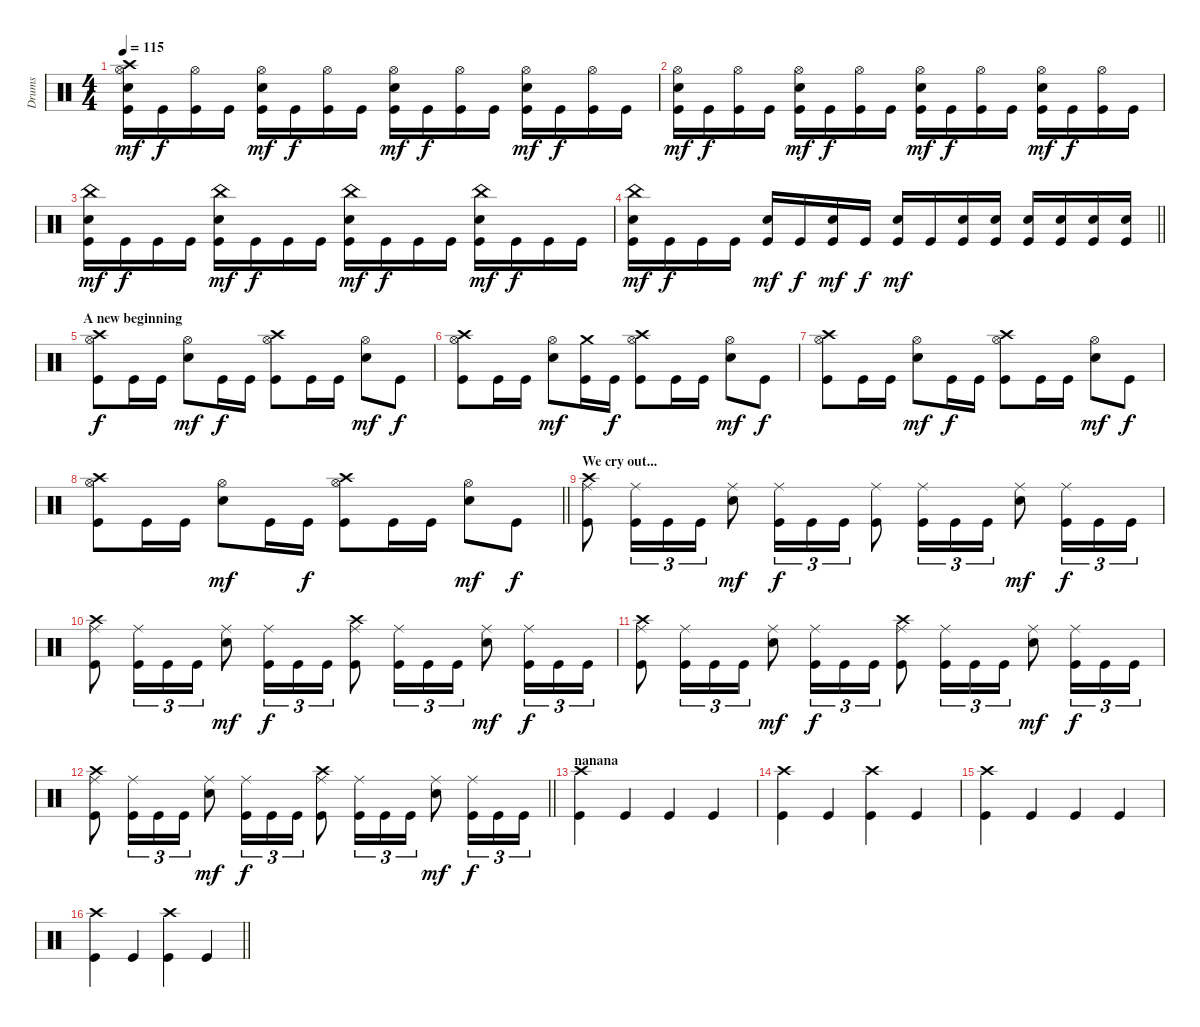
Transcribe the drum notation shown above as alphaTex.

\track ("Drums" "Drums") {instrument percussion}
\staff {score}
\articulation defaults
\ts (4 4)
\section ("" "")
\tempo 115
\clef neutral
\ks c
("Crash high (hit)" "Hi-Hat (open)" "Snare (hit) 2" "Kick (hit)").16{dy mf} "Kick (hit)".16{dy f} ("Hi-Hat (open)" "Kick (hit)").16 "Kick (hit)".16 ("Hi-Hat (open)" "Snare (hit) 2" "Kick (hit)").16{dy mf} "Kick (hit)".16{dy f} ("Hi-Hat (open)" "Kick (hit)").16 "Kick (hit)".16 ("Hi-Hat (open)" "Snare (hit) 2" "Kick (hit)").16{dy mf} "Kick (hit)".16{dy f} ("Hi-Hat (open)" "Kick (hit)").16 "Kick (hit)".16 ("Hi-Hat (open)" "Snare (hit) 2" "Kick (hit)").16{dy mf} "Kick (hit)".16{dy f} ("Hi-Hat (open)" "Kick (hit)").16 "Kick (hit)".16 |
("Hi-Hat (open)" "Snare (hit) 2" "Kick (hit)").16{dy mf} "Kick (hit)".16{dy f} ("Hi-Hat (open)" "Kick (hit)").16 "Kick (hit)".16 ("Hi-Hat (open)" "Snare (hit) 2" "Kick (hit)").16{dy mf} "Kick (hit)".16{dy f} ("Hi-Hat (open)" "Kick (hit)").16 "Kick (hit)".16 ("Hi-Hat (open)" "Snare (hit) 2" "Kick (hit)").16{dy mf} "Kick (hit)".16{dy f} ("Hi-Hat (open)" "Kick (hit)").16 "Kick (hit)".16 ("Hi-Hat (open)" "Snare (hit) 2" "Kick (hit)").16{dy mf} "Kick (hit)".16{dy f} ("Hi-Hat (open)" "Kick (hit)").16 "Kick (hit)".16 |
("China (hit)" "Snare (hit) 2" "Kick (hit)").16{dy mf} "Kick (hit)".16{dy f} "Kick (hit)".16 "Kick (hit)".16 ("China (hit)" "Snare (hit) 2" "Kick (hit)").16{dy mf} "Kick (hit)".16{dy f} "Kick (hit)".16 "Kick (hit)".16 ("China (hit)" "Snare (hit) 2" "Kick (hit)").16{dy mf} "Kick (hit)".16{dy f} "Kick (hit)".16 "Kick (hit)".16 ("China (hit)" "Snare (hit) 2" "Kick (hit)").16{dy mf} "Kick (hit)".16{dy f} "Kick (hit)".16 "Kick (hit)".16 |
\barLineRight lightlight
("China (hit)" "Snare (hit) 2" "Kick (hit)").16{dy mf} "Kick (hit)".16{dy f} "Kick (hit)".16 "Kick (hit)".16 ("Snare (hit) 2" "Kick (hit)").16{dy mf} "Kick (hit)".16{dy f} ("Snare (hit) 2" "Kick (hit)").16{dy mf} "Kick (hit)".16{dy f} ("Snare (hit) 2" "Kick (hit)").16{dy mf} "Kick (hit)".16 ("Snare (hit) 2" "Kick (hit)").16 ("Snare (hit) 2" "Kick (hit)").16 ("Snare (hit) 2" "Kick (hit)").16 ("Snare (hit) 2" "Kick (hit)").16 ("Snare (hit) 2" "Kick (hit)").16 ("Snare (hit) 2" "Kick (hit)").16 |
\section ("" "A new beginning")
("Crash high (hit)" "Hi-Hat (open)" "Kick (hit)").8{dy f} "Kick (hit)".16 "Kick (hit)".16 ("Hi-Hat (open)" "Snare (hit) 2").8{dy mf} "Kick (hit)".16{dy f} "Kick (hit)".16 ("Crash high (hit)" "Hi-Hat (open)" "Kick (hit)").8 "Kick (hit)".16 "Kick (hit)".16 ("Hi-Hat (open)" "Snare (hit) 2").8{dy mf} "Kick (hit)".8{dy f} |
("Crash high (hit)" "Hi-Hat (open)" "Kick (hit)").8 "Kick (hit)".16 "Kick (hit)".16 ("Hi-Hat (open)" "Snare (hit) 2").8{dy mf} ("Crash medium (hit)" "Kick (hit)").16 "Kick (hit)".16{dy f} ("Crash high (hit)" "Hi-Hat (open)" "Kick (hit)").8 "Kick (hit)".16 "Kick (hit)".16 ("Hi-Hat (open)" "Snare (hit) 2").8{dy mf} "Kick (hit)".8{dy f} |
("Crash high (hit)" "Hi-Hat (open)" "Kick (hit)").8 "Kick (hit)".16 "Kick (hit)".16 ("Hi-Hat (open)" "Snare (hit) 2").8{dy mf} "Kick (hit)".16{dy f} "Kick (hit)".16 ("Crash high (hit)" "Hi-Hat (open)" "Kick (hit)").8 "Kick (hit)".16 "Kick (hit)".16 ("Hi-Hat (open)" "Snare (hit) 2").8{dy mf} "Kick (hit)".8{dy f} |
\barLineRight lightlight
("Crash high (hit)" "Hi-Hat (open)" "Kick (hit)").8 "Kick (hit)".16 "Kick (hit)".16 ("Hi-Hat (open)" "Snare (hit) 2").8{dy mf} "Kick (hit)".16 "Kick (hit)".16{dy f} ("Crash high (hit)" "Hi-Hat (open)" "Kick (hit)").8 "Kick (hit)".16 "Kick (hit)".16 ("Hi-Hat (open)" "Snare (hit) 2").8{dy mf} "Kick (hit)".8{dy f} |
\section ("" "We cry out...")
("Crash high (hit)" "Ride (middle)" "Kick (hit)").8 ("Ride (middle)" "Kick (hit)").16{tu (3 2)} "Kick (hit)".16{tu (3 2)} "Kick (hit)".16{tu (3 2)} ("Ride (middle)" "Snare (hit) 2").8{dy mf} ("Ride (middle)" "Kick (hit)").16{tu (3 2) dy f} "Kick (hit)".16{tu (3 2)} "Kick (hit)".16{tu (3 2)} ("Ride (middle)" "Kick (hit)").8 ("Ride (middle)" "Kick (hit)").16{tu (3 2)} "Kick (hit)".16{tu (3 2)} "Kick (hit)".16{tu (3 2)} ("Ride (middle)" "Snare (hit) 2").8{dy mf} ("Ride (middle)" "Kick (hit)").16{tu (3 2) dy f} "Kick (hit)".16{tu (3 2)} "Kick (hit)".16{tu (3 2)} |
("Crash high (hit)" "Ride (middle)" "Kick (hit)").8 ("Ride (middle)" "Kick (hit)").16{tu (3 2)} "Kick (hit)".16{tu (3 2)} "Kick (hit)".16{tu (3 2)} ("Ride (middle)" "Snare (hit) 2").8{dy mf} ("Ride (middle)" "Kick (hit)").16{tu (3 2) dy f} "Kick (hit)".16{tu (3 2)} "Kick (hit)".16{tu (3 2)} ("Crash high (hit)" "Ride (middle)" "Kick (hit)").8 ("Ride (middle)" "Kick (hit)").16{tu (3 2)} "Kick (hit)".16{tu (3 2)} "Kick (hit)".16{tu (3 2)} ("Ride (middle)" "Snare (hit) 2").8{dy mf} ("Ride (middle)" "Kick (hit)").16{tu (3 2) dy f} "Kick (hit)".16{tu (3 2)} "Kick (hit)".16{tu (3 2)} |
("Crash high (hit)" "Ride (middle)" "Kick (hit)").8 ("Ride (middle)" "Kick (hit)").16{tu (3 2)} "Kick (hit)".16{tu (3 2)} "Kick (hit)".16{tu (3 2)} ("Ride (middle)" "Snare (hit) 2").8{dy mf} ("Ride (middle)" "Kick (hit)").16{tu (3 2) dy f} "Kick (hit)".16{tu (3 2)} "Kick (hit)".16{tu (3 2)} ("Crash high (hit)" "Ride (middle)" "Kick (hit)").8 ("Ride (middle)" "Kick (hit)").16{tu (3 2)} "Kick (hit)".16{tu (3 2)} "Kick (hit)".16{tu (3 2)} ("Ride (middle)" "Snare (hit) 2").8{dy mf} ("Ride (middle)" "Kick (hit)").16{tu (3 2) dy f} "Kick (hit)".16{tu (3 2)} "Kick (hit)".16{tu (3 2)} |
\barLineRight lightlight
("Crash high (hit)" "Ride (middle)" "Kick (hit)").8 ("Ride (middle)" "Kick (hit)").16{tu (3 2)} "Kick (hit)".16{tu (3 2)} "Kick (hit)".16{tu (3 2)} ("Ride (middle)" "Snare (hit) 2").8{dy mf} ("Ride (middle)" "Kick (hit)").16{tu (3 2) dy f} "Kick (hit)".16{tu (3 2)} "Kick (hit)".16{tu (3 2)} ("Crash high (hit)" "Ride (middle)" "Kick (hit)").8 ("Ride (middle)" "Kick (hit)").16{tu (3 2)} "Kick (hit)".16{tu (3 2)} "Kick (hit)".16{tu (3 2)} ("Ride (middle)" "Snare (hit) 2").8{dy mf} ("Ride (middle)" "Kick (hit)").16{tu (3 2) dy f} "Kick (hit)".16{tu (3 2)} "Kick (hit)".16{tu (3 2)} |
\section ("" "nanana")
("Crash high (hit)" "Kick (hit)").4 "Kick (hit)".4 "Kick (hit)".4 "Kick (hit)".4 |
("Crash high (hit)" "Kick (hit)").4 "Kick (hit)".4 ("Crash high (hit)" "Kick (hit)").4 "Kick (hit)".4 |
("Crash high (hit)" "Kick (hit)").4 "Kick (hit)".4 "Kick (hit)".4 "Kick (hit)".4 |
\barLineRight lightlight
("Crash high (hit)" "Kick (hit)").4 "Kick (hit)".4 ("Crash high (hit)" "Kick (hit)").4 "Kick (hit)".4
